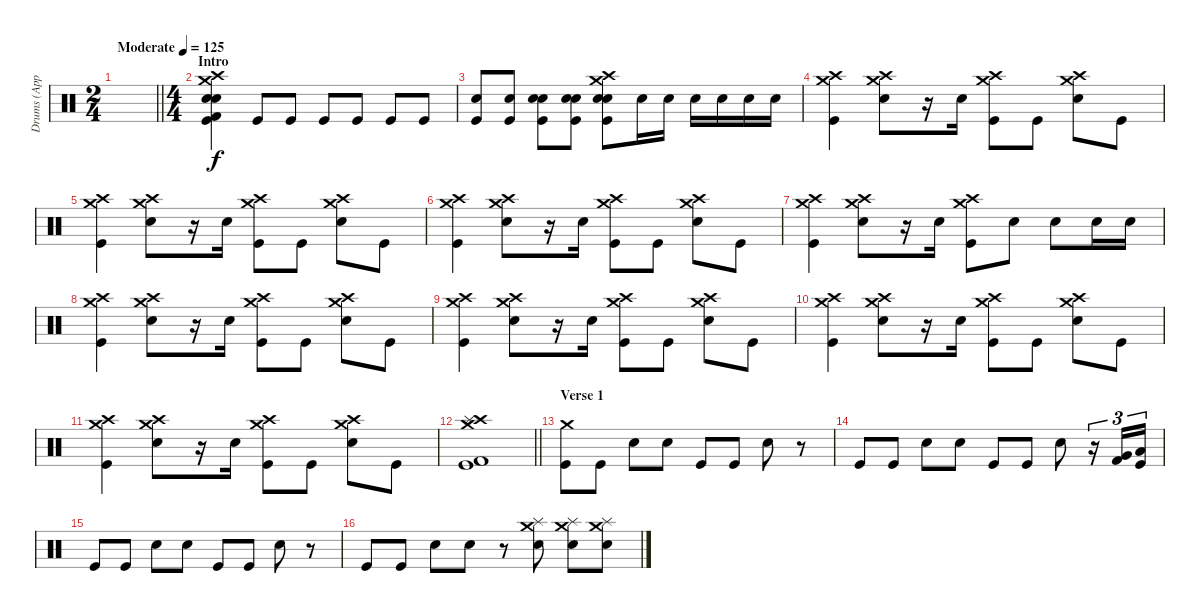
\track ("Drums (Approx.)" "Drums (App") {instrument percussion}
\staff {score}
\articulation defaults
\ts (2 4)
\tempo (125 "Moderate")
\clef neutral
\barLineRight lightlight
\ks c
|
\ts (4 4)
\section ("" "Intro")
("Crash medium (hit)" "Crash high (hit)" "Snare (hit) 2" "Kick (hit)" "Kick (hit) 2" "Electric Snare (hit)").4 "Kick (hit)".8 "Kick (hit)".8 "Kick (hit)".8 "Kick (hit)".8 "Kick (hit)".8 "Kick (hit)".8 |
("Electric Snare (hit)" "Kick (hit)").8 ("Electric Snare (hit)" "Kick (hit)").8 ("Snare (hit) 2" "Electric Snare (hit)" "Kick (hit)").8 ("Snare (hit) 2" "Electric Snare (hit)" "Kick (hit)").8 ("Crash medium (hit)" "Crash high (hit)" "Snare (hit) 2" "Electric Snare (hit)" "Kick (hit)").8 "Electric Snare (hit)".16 "Electric Snare (hit)".16 "Electric Snare (hit)".16 "Electric Snare (hit)".16 "Electric Snare (hit)".16 "Electric Snare (hit)".16 |
("Crash medium (hit)" "Crash high (hit)" "Kick (hit)").4 ("Crash medium (hit)" "Crash high (hit)" "Electric Snare (hit)").8 r.16 "Electric Snare (hit)".16 ("Crash medium (hit)" "Crash high (hit)" "Kick (hit)").8 "Kick (hit)".8 ("Crash medium (hit)" "Crash high (hit)" "Electric Snare (hit)").8 "Kick (hit)".8 |
("Crash medium (hit)" "Crash high (hit)" "Kick (hit)").4 ("Crash medium (hit)" "Crash high (hit)" "Electric Snare (hit)").8 r.16 "Electric Snare (hit)".16 ("Crash medium (hit)" "Crash high (hit)" "Kick (hit)").8 "Kick (hit)".8 ("Crash medium (hit)" "Crash high (hit)" "Electric Snare (hit)").8 "Kick (hit)".8 |
("Crash medium (hit)" "Crash high (hit)" "Kick (hit)").4 ("Crash medium (hit)" "Crash high (hit)" "Electric Snare (hit)").8 r.16 "Electric Snare (hit)".16 ("Crash medium (hit)" "Crash high (hit)" "Kick (hit)").8 "Kick (hit)".8 ("Crash medium (hit)" "Crash high (hit)" "Electric Snare (hit)").8 "Kick (hit)".8 |
("Crash medium (hit)" "Crash high (hit)" "Kick (hit)").4 ("Crash medium (hit)" "Crash high (hit)" "Electric Snare (hit)").8 r.16 "Electric Snare (hit)".16 ("Crash medium (hit)" "Crash high (hit)" "Kick (hit)").8 "Electric Snare (hit)".8 "Electric Snare (hit)".8 "Electric Snare (hit)".16 "Electric Snare (hit)".16 |
("Crash medium (hit)" "Crash high (hit)" "Kick (hit)").4 ("Crash medium (hit)" "Crash high (hit)" "Electric Snare (hit)").8 r.16 "Electric Snare (hit)".16 ("Crash medium (hit)" "Crash high (hit)" "Kick (hit)").8 "Kick (hit)".8 ("Crash medium (hit)" "Crash high (hit)" "Electric Snare (hit)").8 "Kick (hit)".8 |
("Crash medium (hit)" "Crash high (hit)" "Kick (hit)").4 ("Crash medium (hit)" "Crash high (hit)" "Electric Snare (hit)").8 r.16 "Electric Snare (hit)".16 ("Crash medium (hit)" "Crash high (hit)" "Kick (hit)").8 "Kick (hit)".8 ("Crash medium (hit)" "Crash high (hit)" "Electric Snare (hit)").8 "Kick (hit)".8 |
("Crash medium (hit)" "Crash high (hit)" "Kick (hit)").4 ("Crash medium (hit)" "Crash high (hit)" "Electric Snare (hit)").8 r.16 "Electric Snare (hit)".16 ("Crash medium (hit)" "Crash high (hit)" "Kick (hit)").8 "Kick (hit)".8 ("Crash medium (hit)" "Crash high (hit)" "Electric Snare (hit)").8 "Kick (hit)".8 |
("Crash medium (hit)" "Crash high (hit)" "Kick (hit)").4 ("Crash medium (hit)" "Crash high (hit)" "Electric Snare (hit)").8 r.16 "Electric Snare (hit)".16 ("Crash medium (hit)" "Crash high (hit)" "Kick (hit)").8 "Kick (hit)".8 ("Crash medium (hit)" "Crash high (hit)" "Electric Snare (hit)").8 "Kick (hit)".8 |
\barLineRight lightlight
("Crash medium (hit)" "Crash high (hit)" "Splash (hit)" "Kick (hit) 2" "Kick (hit)").1 |
\section ("" "Verse 1")
("Crash medium (hit)" "Kick (hit)").8 "Kick (hit)".8 "Electric Snare (hit)".8 "Electric Snare (hit)".8 "Kick (hit)".8 "Kick (hit)".8 "Electric Snare (hit)".8 r.8 |
"Kick (hit)".8 "Kick (hit)".8 "Electric Snare (hit)".8 "Electric Snare (hit)".8 "Kick (hit)".8 "Kick (hit)".8 "Electric Snare (hit)".8 r.16{tu (3 2)} ("Kick (hit) 2" "Very Low Tom (hit)").16{tu (3 2)} ("Kick (hit)" "Low Floor Tom (hit)").16{tu (3 2)} |
"Kick (hit)".8 "Kick (hit)".8 "Electric Snare (hit)".8 "Electric Snare (hit)".8 "Kick (hit)".8 "Kick (hit)".8 "Electric Snare (hit)".8 r.8 |
"Kick (hit)".8 "Kick (hit)".8 "Electric Snare (hit)".8 "Electric Snare (hit)".8 r.8 ("Crash medium (hit)" "Splash (hit)" "Electric Snare (hit)").8 ("Crash medium (hit)" "Splash (hit)" "Electric Snare (hit)").8 ("Crash medium (hit)" "Splash (hit)" "Electric Snare (hit)").8
